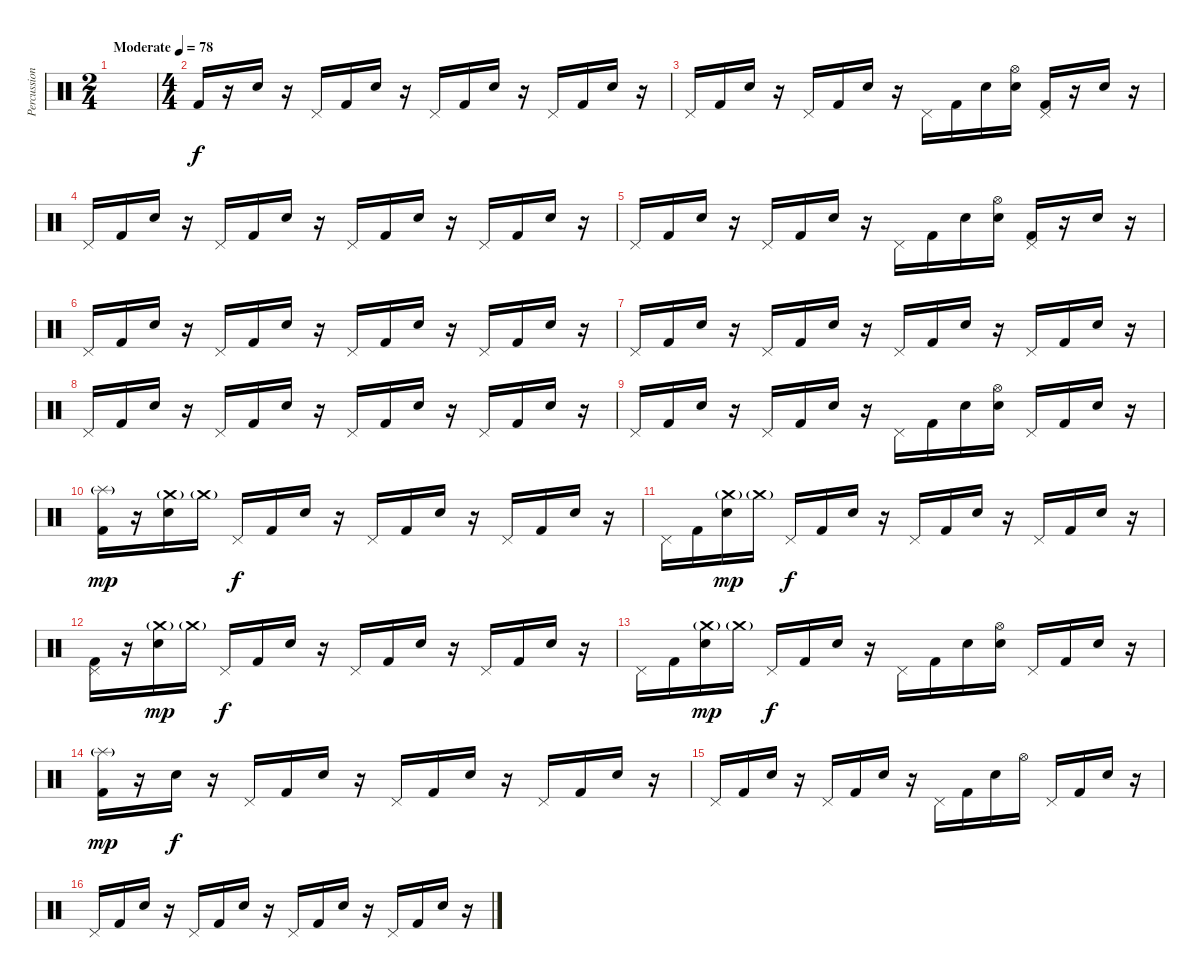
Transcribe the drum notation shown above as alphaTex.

\track ("Percussion" "Percussion") {instrument percussion}
\staff {score}
\articulation defaults
\ts (2 4)
\tempo (78 "Moderate")
\clef neutral
\ks c
|
\ts (4 4)
"Kick (hit) 2".16 r.16 "Electric Snare (hit)".16 r.16 "Pedal Hi-Hat (hit)".16 "Kick (hit) 2".16 "Electric Snare (hit)".16 r.16 "Pedal Hi-Hat (hit)".16 "Kick (hit) 2".16 "Electric Snare (hit)".16 r.16 "Pedal Hi-Hat (hit)".16 "Kick (hit) 2".16 "Electric Snare (hit)".16 r.16 |
"Pedal Hi-Hat (hit)".16 "Kick (hit) 2".16 "Electric Snare (hit)".16 r.16 "Pedal Hi-Hat (hit)".16 "Kick (hit) 2".16 "Electric Snare (hit)".16 r.16 "Pedal Hi-Hat (hit)".16 "Kick (hit) 2".16 "Electric Snare (hit)".16 ("Hi-Hat (open)" "Electric Snare (hit)").16 ("Pedal Hi-Hat (hit)" "Kick (hit) 2").16 r.16 "Electric Snare (hit)".16 r.16 |
"Pedal Hi-Hat (hit)".16 "Kick (hit) 2".16 "Electric Snare (hit)".16 r.16 "Pedal Hi-Hat (hit)".16 "Kick (hit) 2".16 "Electric Snare (hit)".16 r.16 "Pedal Hi-Hat (hit)".16 "Kick (hit) 2".16 "Electric Snare (hit)".16 r.16 "Pedal Hi-Hat (hit)".16 "Kick (hit) 2".16 "Electric Snare (hit)".16 r.16 |
"Pedal Hi-Hat (hit)".16 "Kick (hit) 2".16 "Electric Snare (hit)".16 r.16 "Pedal Hi-Hat (hit)".16 "Kick (hit) 2".16 "Electric Snare (hit)".16 r.16 "Pedal Hi-Hat (hit)".16 "Kick (hit) 2".16 "Electric Snare (hit)".16 ("Hi-Hat (open)" "Electric Snare (hit)").16 ("Pedal Hi-Hat (hit)" "Kick (hit) 2").16 r.16 "Electric Snare (hit)".16 r.16 |
"Pedal Hi-Hat (hit)".16 "Kick (hit) 2".16 "Electric Snare (hit)".16 r.16 "Pedal Hi-Hat (hit)".16 "Kick (hit) 2".16 "Electric Snare (hit)".16 r.16 "Pedal Hi-Hat (hit)".16 "Kick (hit) 2".16 "Electric Snare (hit)".16 r.16 "Pedal Hi-Hat (hit)".16 "Kick (hit) 2".16 "Electric Snare (hit)".16 r.16 |
"Pedal Hi-Hat (hit)".16 "Kick (hit) 2".16 "Electric Snare (hit)".16 r.16 "Pedal Hi-Hat (hit)".16 "Kick (hit) 2".16 "Electric Snare (hit)".16 r.16 "Pedal Hi-Hat (hit)".16 "Kick (hit) 2".16 "Electric Snare (hit)".16 r.16 "Pedal Hi-Hat (hit)".16 "Kick (hit) 2".16 "Electric Snare (hit)".16 r.16 |
"Pedal Hi-Hat (hit)".16 "Kick (hit) 2".16 "Electric Snare (hit)".16 r.16 "Pedal Hi-Hat (hit)".16 "Kick (hit) 2".16 "Electric Snare (hit)".16 r.16 "Pedal Hi-Hat (hit)".16 "Kick (hit) 2".16 "Electric Snare (hit)".16 r.16 "Pedal Hi-Hat (hit)".16 "Kick (hit) 2".16 "Electric Snare (hit)".16 r.16 |
"Pedal Hi-Hat (hit)".16 "Kick (hit) 2".16 "Electric Snare (hit)".16 r.16 "Pedal Hi-Hat (hit)".16 "Kick (hit) 2".16 "Electric Snare (hit)".16 r.16 "Pedal Hi-Hat (hit)".16 "Kick (hit) 2".16 "Electric Snare (hit)".16 ("Hi-Hat (open)" "Electric Snare (hit)").16 "Pedal Hi-Hat (hit)".16 "Kick (hit) 2".16 "Electric Snare (hit)".16 r.16 |
("Splash (hit)"{g} "Kick (hit) 2").16{dy mp} r.16 ("Crash medium (hit)"{g} "Electric Snare (hit)").16 "Crash medium (hit)"{g}.16 "Pedal Hi-Hat (hit)".16{dy f} "Kick (hit) 2".16 "Electric Snare (hit)".16 r.16 "Pedal Hi-Hat (hit)".16 "Kick (hit) 2".16 "Electric Snare (hit)".16 r.16 "Pedal Hi-Hat (hit)".16 "Kick (hit) 2".16 "Electric Snare (hit)".16 r.16 |
"Pedal Hi-Hat (hit)".16 "Kick (hit) 2".16 ("Crash medium (hit)"{g} "Electric Snare (hit)").16{dy mp} "Crash medium (hit)"{g}.16 "Pedal Hi-Hat (hit)".16{dy f} "Kick (hit) 2".16 "Electric Snare (hit)".16 r.16 "Pedal Hi-Hat (hit)".16 "Kick (hit) 2".16 "Electric Snare (hit)".16 r.16 "Pedal Hi-Hat (hit)".16 "Kick (hit) 2".16 "Electric Snare (hit)".16 r.16 |
("Pedal Hi-Hat (hit)" "Kick (hit) 2").16 r.16 ("Crash medium (hit)"{g} "Electric Snare (hit)").16{dy mp} "Crash medium (hit)"{g}.16 "Pedal Hi-Hat (hit)".16{dy f} "Kick (hit) 2".16 "Electric Snare (hit)".16 r.16 "Pedal Hi-Hat (hit)".16 "Kick (hit) 2".16 "Electric Snare (hit)".16 r.16 "Pedal Hi-Hat (hit)".16 "Kick (hit) 2".16 "Electric Snare (hit)".16 r.16 |
"Pedal Hi-Hat (hit)".16 "Kick (hit) 2".16 ("Crash medium (hit)"{g} "Electric Snare (hit)").16{dy mp} "Crash medium (hit)"{g}.16 "Pedal Hi-Hat (hit)".16{dy f} "Kick (hit) 2".16 "Electric Snare (hit)".16 r.16 "Pedal Hi-Hat (hit)".16 "Kick (hit) 2".16 "Electric Snare (hit)".16 ("Hi-Hat (open)" "Electric Snare (hit)").16 "Pedal Hi-Hat (hit)".16 "Kick (hit) 2".16 "Electric Snare (hit)".16 r.16 |
("Splash (hit)"{g} "Kick (hit) 2").16{dy mp} r.16 "Electric Snare (hit)".16{dy f} r.16 "Pedal Hi-Hat (hit)".16 "Kick (hit) 2".16 "Electric Snare (hit)".16 r.16 "Pedal Hi-Hat (hit)".16 "Kick (hit) 2".16 "Electric Snare (hit)".16 r.16 "Pedal Hi-Hat (hit)".16 "Kick (hit) 2".16 "Electric Snare (hit)".16 r.16 |
"Pedal Hi-Hat (hit)".16 "Kick (hit) 2".16 "Electric Snare (hit)".16 r.16 "Pedal Hi-Hat (hit)".16 "Kick (hit) 2".16 "Electric Snare (hit)".16 r.16 "Pedal Hi-Hat (hit)".16 "Kick (hit) 2".16 "Electric Snare (hit)".16 "Hi-Hat (open)".16 "Pedal Hi-Hat (hit)".16 "Kick (hit) 2".16 "Electric Snare (hit)".16 r.16 |
"Pedal Hi-Hat (hit)".16 "Kick (hit) 2".16 "Electric Snare (hit)".16 r.16 "Pedal Hi-Hat (hit)".16 "Kick (hit) 2".16 "Electric Snare (hit)".16 r.16 "Pedal Hi-Hat (hit)".16 "Kick (hit) 2".16 "Electric Snare (hit)".16 r.16 "Pedal Hi-Hat (hit)".16 "Kick (hit) 2".16 "Electric Snare (hit)".16 r.16
